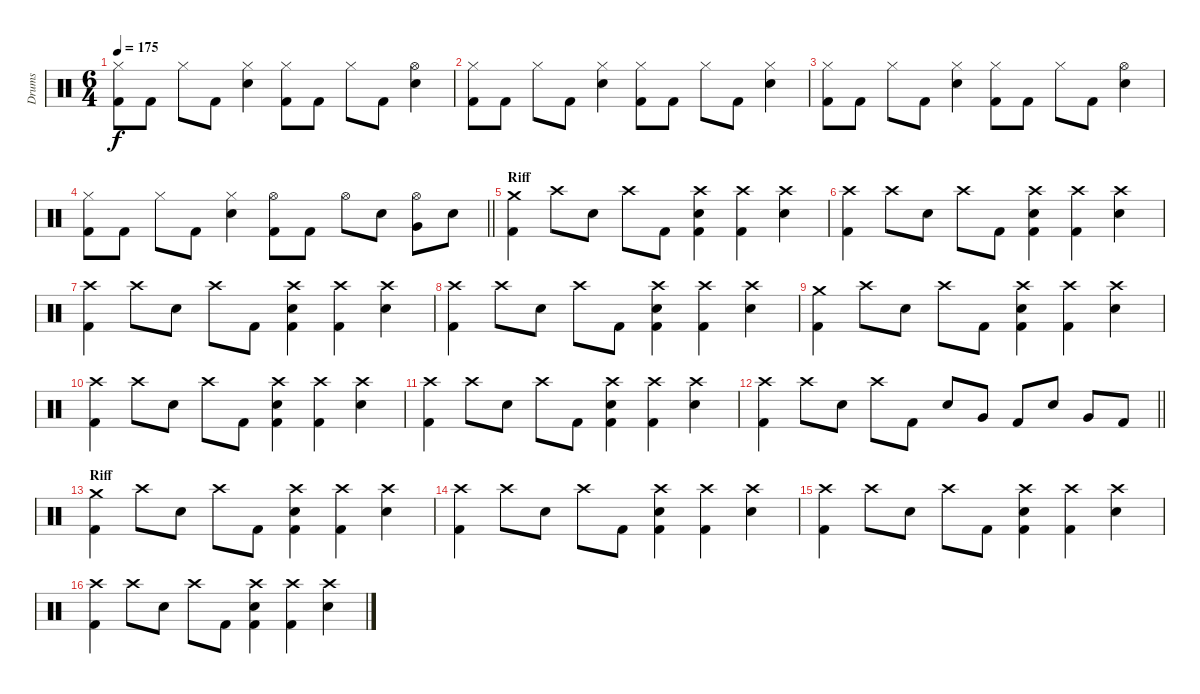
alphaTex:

\track ("Drums" "Drums") {instrument percussion}
\staff {score}
\articulation defaults
\ts (6 4)
\tempo 175
\clef neutral
\ks c
("Hi-Hat (closed)" "Kick (hit) 2").8{dy f} "Kick (hit) 2".8 "Hi-Hat (closed)".8 "Kick (hit) 2".8 ("Hi-Hat (closed)" "Electric Snare (hit)").4 ("Hi-Hat (closed)" "Kick (hit) 2").8 "Kick (hit) 2".8 "Hi-Hat (closed)".8 "Kick (hit) 2".8 ("Hi-Hat (open)" "Electric Snare (hit)").4 |
("Hi-Hat (closed)" "Kick (hit) 2").8 "Kick (hit) 2".8 "Hi-Hat (closed)".8 "Kick (hit) 2".8 ("Hi-Hat (closed)" "Electric Snare (hit)").4 ("Hi-Hat (closed)" "Kick (hit) 2").8 "Kick (hit) 2".8 "Hi-Hat (closed)".8 "Kick (hit) 2".8 ("Hi-Hat (closed)" "Electric Snare (hit)").4 |
("Hi-Hat (closed)" "Kick (hit) 2").8 "Kick (hit) 2".8 "Hi-Hat (closed)".8 "Kick (hit) 2".8 ("Hi-Hat (closed)" "Electric Snare (hit)").4 ("Hi-Hat (closed)" "Kick (hit) 2").8 "Kick (hit) 2".8 "Hi-Hat (closed)".8 "Kick (hit) 2".8 ("Hi-Hat (open)" "Electric Snare (hit)").4 |
\barLineRight lightlight
("Hi-Hat (closed)" "Kick (hit) 2").8 "Kick (hit) 2".8 "Hi-Hat (closed)".8 "Kick (hit) 2".8 ("Hi-Hat (closed)" "Electric Snare (hit)").4 ("Hi-Hat (open)" "Kick (hit) 2").8 "Kick (hit) 2".8 "Hi-Hat (open)".8 "Electric Snare (hit)".8 ("Hi-Hat (open)" "Very Low Tom (hit)").8 "Electric Snare (hit)".8 |
\section ("" "Riff")
("Crash medium (hit)" "Kick (hit) 2").4 "Crash high (hit)".8 "Electric Snare (hit)".8 "Crash high (hit)".8 "Kick (hit) 2".8 ("Crash high (hit)" "Electric Snare (hit)" "Kick (hit) 2").4 ("Crash high (hit)" "Kick (hit) 2").4 ("Crash high (hit)" "Electric Snare (hit)").4 |
("Crash high (hit)" "Kick (hit) 2").4 "Crash high (hit)".8 "Electric Snare (hit)".8 "Crash high (hit)".8 "Kick (hit) 2".8 ("Crash high (hit)" "Electric Snare (hit)" "Kick (hit) 2").4 ("Crash high (hit)" "Kick (hit) 2").4 ("Crash high (hit)" "Electric Snare (hit)").4 |
("Crash high (hit)" "Kick (hit) 2").4 "Crash high (hit)".8 "Electric Snare (hit)".8 "Crash high (hit)".8 "Kick (hit) 2".8 ("Crash high (hit)" "Electric Snare (hit)" "Kick (hit) 2").4 ("Crash high (hit)" "Kick (hit) 2").4 ("Crash high (hit)" "Electric Snare (hit)").4 |
("Crash high (hit)" "Kick (hit) 2").4 "Crash high (hit)".8 "Electric Snare (hit)".8 "Crash high (hit)".8 "Kick (hit) 2".8 ("Crash high (hit)" "Electric Snare (hit)" "Kick (hit) 2").4 ("Crash high (hit)" "Kick (hit) 2").4 ("Crash high (hit)" "Electric Snare (hit)").4 |
("Crash medium (hit)" "Kick (hit) 2").4 "Crash high (hit)".8 "Electric Snare (hit)".8 "Crash high (hit)".8 "Kick (hit) 2".8 ("Crash high (hit)" "Electric Snare (hit)" "Kick (hit) 2").4 ("Crash high (hit)" "Kick (hit) 2").4 ("Crash high (hit)" "Electric Snare (hit)").4 |
("Crash high (hit)" "Kick (hit) 2").4 "Crash high (hit)".8 "Electric Snare (hit)".8 "Crash high (hit)".8 "Kick (hit) 2".8 ("Crash high (hit)" "Electric Snare (hit)" "Kick (hit) 2").4 ("Crash high (hit)" "Kick (hit) 2").4 ("Crash high (hit)" "Electric Snare (hit)").4 |
("Crash high (hit)" "Kick (hit) 2").4 "Crash high (hit)".8 "Electric Snare (hit)".8 "Crash high (hit)".8 "Kick (hit) 2".8 ("Crash high (hit)" "Electric Snare (hit)" "Kick (hit) 2").4 ("Crash high (hit)" "Kick (hit) 2").4 ("Crash high (hit)" "Electric Snare (hit)").4 |
\barLineRight lightlight
("Crash high (hit)" "Kick (hit) 2").4 "Crash high (hit)".8 "Electric Snare (hit)".8 "Crash high (hit)".8 "Kick (hit) 2".8 "Electric Snare (hit)".8 "Very Low Tom (hit)".8 "Kick (hit) 2".8 "Electric Snare (hit)".8 "Very Low Tom (hit)".8 "Kick (hit) 2".8 |
\section ("" "Riff")
("Crash medium (hit)" "Kick (hit) 2").4 "Crash high (hit)".8 "Electric Snare (hit)".8 "Crash high (hit)".8 "Kick (hit) 2".8 ("Crash high (hit)" "Electric Snare (hit)" "Kick (hit) 2").4 ("Crash high (hit)" "Kick (hit) 2").4 ("Crash high (hit)" "Electric Snare (hit)").4 |
("Crash high (hit)" "Kick (hit) 2").4 "Crash high (hit)".8 "Electric Snare (hit)".8 "Crash high (hit)".8 "Kick (hit) 2".8 ("Crash high (hit)" "Electric Snare (hit)" "Kick (hit) 2").4 ("Crash high (hit)" "Kick (hit) 2").4 ("Crash high (hit)" "Electric Snare (hit)").4 |
("Crash high (hit)" "Kick (hit) 2").4 "Crash high (hit)".8 "Electric Snare (hit)".8 "Crash high (hit)".8 "Kick (hit) 2".8 ("Crash high (hit)" "Electric Snare (hit)" "Kick (hit) 2").4 ("Crash high (hit)" "Kick (hit) 2").4 ("Crash high (hit)" "Electric Snare (hit)").4 |
("Crash high (hit)" "Kick (hit) 2").4 "Crash high (hit)".8 "Electric Snare (hit)".8 "Crash high (hit)".8 "Kick (hit) 2".8 ("Crash high (hit)" "Electric Snare (hit)" "Kick (hit) 2").4 ("Crash high (hit)" "Kick (hit) 2").4 ("Crash high (hit)" "Electric Snare (hit)").4
